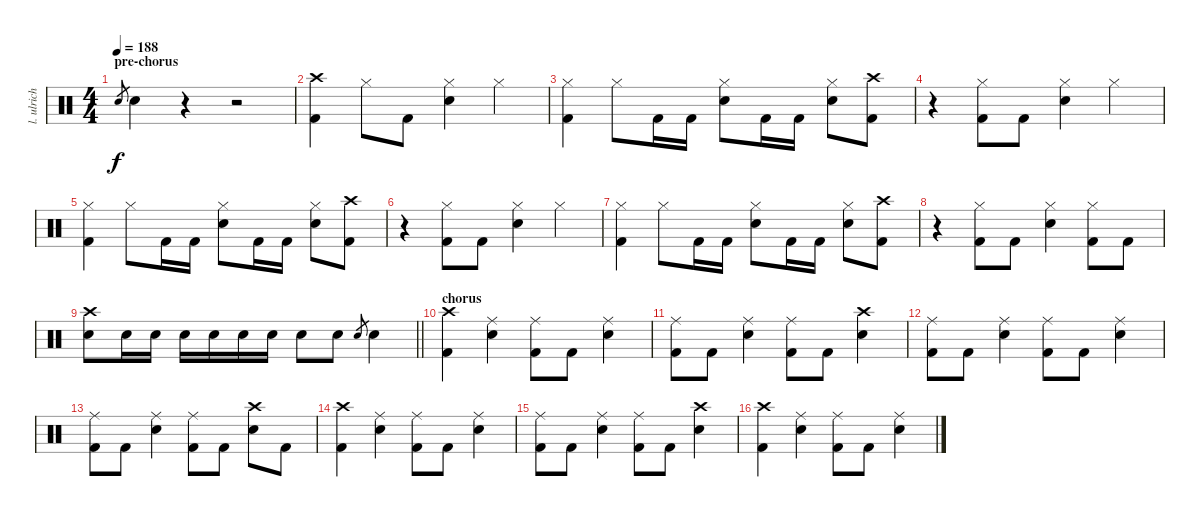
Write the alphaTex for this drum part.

\track ("l. ulrich - drums" "l. ulrich ") {instrument percussion}
\staff {score}
\articulation defaults
\ts (4 4)
\section ("" "pre-chorus")
\tempo 188
\clef neutral
\ks c "Snare (hit) 2".8{gr dy f} "Snare (hit) 2".4
r.4 r.2 |
("Crash high (hit)" "Kick (hit) 2").4 "Hi-Hat (closed)".8 "Kick (hit) 2".8 ("Hi-Hat (closed)" "Snare (hit) 2").4 "Hi-Hat (closed)".4 |
("Hi-Hat (closed)" "Kick (hit) 2").4 "Hi-Hat (closed)".8 "Kick (hit) 2".16 "Kick (hit) 2".16 ("Hi-Hat (closed)" "Snare (hit) 2").8 "Kick (hit) 2".16 "Kick (hit) 2".16 ("Hi-Hat (closed)" "Snare (hit) 2").8 ("Crash high (hit)" "Kick (hit) 2").8 |
r.4 ("Hi-Hat (closed)" "Kick (hit) 2").8 "Kick (hit) 2".8 ("Hi-Hat (closed)" "Snare (hit) 2").4 "Hi-Hat (closed)".4 |
("Hi-Hat (closed)" "Kick (hit) 2").4 "Hi-Hat (closed)".8 "Kick (hit) 2".16 "Kick (hit) 2".16 ("Hi-Hat (closed)" "Snare (hit) 2").8 "Kick (hit) 2".16 "Kick (hit) 2".16 ("Hi-Hat (closed)" "Snare (hit) 2").8 ("Crash high (hit)" "Kick (hit) 2").8 |
r.4 ("Hi-Hat (closed)" "Kick (hit) 2").8 "Kick (hit) 2".8 ("Hi-Hat (closed)" "Snare (hit) 2").4 "Hi-Hat (closed)".4 |
("Hi-Hat (closed)" "Kick (hit) 2").4 "Hi-Hat (closed)".8 "Kick (hit) 2".16 "Kick (hit) 2".16 ("Hi-Hat (closed)" "Snare (hit) 2").8 "Kick (hit) 2".16 "Kick (hit) 2".16 ("Hi-Hat (closed)" "Snare (hit) 2").8 ("Crash high (hit)" "Kick (hit) 2").8 |
r.4 ("Hi-Hat (closed)" "Kick (hit) 2").8 "Kick (hit) 2".8 ("Hi-Hat (closed)" "Snare (hit) 2").4 ("Hi-Hat (closed)" "Kick (hit) 2").8 "Kick (hit) 2".8 |
\barLineRight lightlight
("Crash high (hit)" "Snare (hit) 2").8 "Snare (hit) 2".16 "Snare (hit) 2".16 "Snare (hit) 2".16 "Snare (hit) 2".16 "Snare (hit) 2".16 "Snare (hit) 2".16 "Snare (hit) 2".8 "Snare (hit) 2".8 "Snare (hit) 2".8{gr} "Snare (hit) 2".4 |
\section ("" "chorus")
("Crash high (hit)" "Kick (hit) 2").4 ("Ride (middle)" "Snare (hit) 2").4 ("Ride (middle)" "Kick (hit) 2").8 "Kick (hit) 2".8 ("Ride (middle)" "Snare (hit) 2").4 |
("Ride (middle)" "Kick (hit) 2").8 "Kick (hit) 2".8 ("Ride (middle)" "Snare (hit) 2").4 ("Ride (middle)" "Kick (hit) 2").8 "Kick (hit) 2".8 ("Crash high (hit)" "Snare (hit) 2").4 |
("Ride (middle)" "Kick (hit) 2").8 "Kick (hit) 2".8 ("Ride (middle)" "Snare (hit) 2").4 ("Ride (middle)" "Kick (hit) 2").8 "Kick (hit) 2".8 ("Ride (middle)" "Snare (hit) 2").4 |
("Ride (middle)" "Kick (hit) 2").8 "Kick (hit) 2".8 ("Ride (middle)" "Snare (hit) 2").4 ("Ride (middle)" "Kick (hit) 2").8 "Kick (hit) 2".8 ("Crash high (hit)" "Snare (hit) 2").8 "Kick (hit) 2".8 |
("Crash high (hit)" "Kick (hit) 2").4 ("Ride (middle)" "Snare (hit) 2").4 ("Ride (middle)" "Kick (hit) 2").8 "Kick (hit) 2".8 ("Ride (middle)" "Snare (hit) 2").4 |
("Ride (middle)" "Kick (hit) 2").8 "Kick (hit) 2".8 ("Ride (middle)" "Snare (hit) 2").4 ("Ride (middle)" "Kick (hit) 2").8 "Kick (hit) 2".8 ("Crash high (hit)" "Snare (hit) 2").4 |
("Crash high (hit)" "Kick (hit) 2").4 ("Ride (middle)" "Snare (hit) 2").4 ("Ride (middle)" "Kick (hit) 2").8 "Kick (hit) 2".8 ("Ride (middle)" "Snare (hit) 2").4
